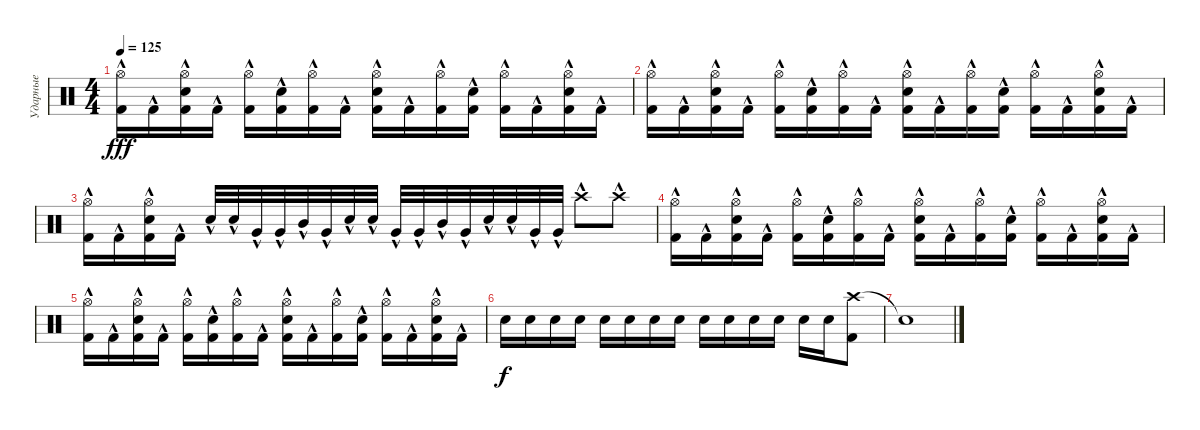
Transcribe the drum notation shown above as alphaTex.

\track ("Ударные" "Ударные") {instrument percussion}
\staff {score}
\articulation defaults
\ts (4 4)
\tempo 125
\clef neutral
\ks c
("Hi-Hat (open)"{hac} "Kick (hit) 2"{hac}).16{dy fff} "Kick (hit) 2"{hac}.16 ("Hi-Hat (open)"{hac} "Electric Snare (hit)"{hac} "Kick (hit) 2"{hac}).16 "Kick (hit) 2"{hac}.16 ("Hi-Hat (open)"{hac} "Kick (hit) 2"{hac}).16 ("Electric Snare (hit)"{hac} "Kick (hit) 2"{hac}).16 ("Hi-Hat (open)"{hac} "Kick (hit) 2"{hac}).16 "Kick (hit) 2"{hac}.16 ("Hi-Hat (open)"{hac} "Electric Snare (hit)"{hac} "Kick (hit) 2"{hac}).16 "Kick (hit) 2"{hac}.16 ("Hi-Hat (open)"{hac} "Kick (hit) 2"{hac}).16 ("Electric Snare (hit)"{hac} "Kick (hit) 2"{hac}).16 ("Hi-Hat (open)"{hac} "Kick (hit) 2"{hac}).16 "Kick (hit) 2"{hac}.16 ("Hi-Hat (open)"{hac} "Electric Snare (hit)"{hac} "Kick (hit) 2"{hac}).16 "Kick (hit) 2"{hac}.16 |
("Hi-Hat (open)"{hac} "Kick (hit) 2"{hac}).16 "Kick (hit) 2"{hac}.16 ("Hi-Hat (open)"{hac} "Electric Snare (hit)"{hac} "Kick (hit) 2"{hac}).16 "Kick (hit) 2"{hac}.16 ("Hi-Hat (open)"{hac} "Kick (hit) 2"{hac}).16 ("Electric Snare (hit)"{hac} "Kick (hit) 2"{hac}).16 ("Hi-Hat (open)"{hac} "Kick (hit) 2"{hac}).16 "Kick (hit) 2"{hac}.16 ("Hi-Hat (open)"{hac} "Electric Snare (hit)"{hac} "Kick (hit) 2"{hac}).16 "Kick (hit) 2"{hac}.16 ("Hi-Hat (open)"{hac} "Kick (hit) 2"{hac}).16 ("Electric Snare (hit)"{hac} "Kick (hit) 2"{hac}).16 ("Hi-Hat (open)"{hac} "Kick (hit) 2"{hac}).16 "Kick (hit) 2"{hac}.16 ("Hi-Hat (open)"{hac} "Electric Snare (hit)"{hac} "Kick (hit) 2"{hac}).16 "Kick (hit) 2"{hac}.16 |
("Hi-Hat (open)"{hac} "Kick (hit) 2"{hac}).16 "Kick (hit) 2"{hac}.16 ("Hi-Hat (open)"{hac} "Electric Snare (hit)"{hac} "Kick (hit) 2"{hac}).16 "Kick (hit) 2"{hac}.16 "Electric Snare (hit)"{hac}.32 "Electric Snare (hit)"{hac}.32 "Very Low Tom (hit)"{hac}.32 "Very Low Tom (hit)"{hac}.32 "Mid Tom (hit)"{hac}.32 "Very Low Tom (hit)"{hac}.32 "Electric Snare (hit)"{hac}.32 "Electric Snare (hit)"{hac}.32 "Very Low Tom (hit)"{hac}.32 "Very Low Tom (hit)"{hac}.32 "Mid Tom (hit)"{hac}.32 "Very Low Tom (hit)"{hac}.32 "Electric Snare (hit)"{hac}.32 "Electric Snare (hit)"{hac}.32 "Very Low Tom (hit)"{hac}.32 "Very Low Tom (hit)"{hac}.32 "Crash high (hit)"{hac}.8 "Crash high (hit)"{hac}.8 |
("Hi-Hat (open)"{hac} "Kick (hit) 2"{hac}).16 "Kick (hit) 2"{hac}.16 ("Hi-Hat (open)"{hac} "Electric Snare (hit)"{hac} "Kick (hit) 2"{hac}).16 "Kick (hit) 2"{hac}.16 ("Hi-Hat (open)"{hac} "Kick (hit) 2"{hac}).16 ("Electric Snare (hit)"{hac} "Kick (hit) 2"{hac}).16 ("Hi-Hat (open)"{hac} "Kick (hit) 2"{hac}).16 "Kick (hit) 2"{hac}.16 ("Hi-Hat (open)"{hac} "Electric Snare (hit)"{hac} "Kick (hit) 2"{hac}).16 "Kick (hit) 2"{hac}.16 ("Hi-Hat (open)"{hac} "Kick (hit) 2"{hac}).16 ("Electric Snare (hit)"{hac} "Kick (hit) 2"{hac}).16 ("Hi-Hat (open)"{hac} "Kick (hit) 2"{hac}).16 "Kick (hit) 2"{hac}.16 ("Hi-Hat (open)"{hac} "Electric Snare (hit)"{hac} "Kick (hit) 2"{hac}).16 "Kick (hit) 2"{hac}.16 |
("Hi-Hat (open)"{hac} "Kick (hit) 2"{hac}).16 "Kick (hit) 2"{hac}.16 ("Hi-Hat (open)"{hac} "Electric Snare (hit)"{hac} "Kick (hit) 2"{hac}).16 "Kick (hit) 2"{hac}.16 ("Hi-Hat (open)"{hac} "Kick (hit) 2"{hac}).16 ("Electric Snare (hit)"{hac} "Kick (hit) 2"{hac}).16 ("Hi-Hat (open)"{hac} "Kick (hit) 2"{hac}).16 "Kick (hit) 2"{hac}.16 ("Hi-Hat (open)"{hac} "Electric Snare (hit)"{hac} "Kick (hit) 2"{hac}).16 "Kick (hit) 2"{hac}.16 ("Hi-Hat (open)"{hac} "Kick (hit) 2"{hac}).16 ("Electric Snare (hit)"{hac} "Kick (hit) 2"{hac}).16 ("Hi-Hat (open)"{hac} "Kick (hit) 2"{hac}).16 "Kick (hit) 2"{hac}.16 ("Hi-Hat (open)"{hac} "Electric Snare (hit)"{hac} "Kick (hit) 2"{hac}).16 "Kick (hit) 2"{hac}.16 |
"Electric Snare (hit)".16{dy f} "Electric Snare (hit)".16 "Electric Snare (hit)".16 "Electric Snare (hit)".16 "Electric Snare (hit)".16 "Electric Snare (hit)".16 "Electric Snare (hit)".16 "Electric Snare (hit)".16 "Electric Snare (hit)".16 "Electric Snare (hit)".16 "Electric Snare (hit)".16 "Electric Snare (hit)".16 "Electric Snare (hit)".16 "Electric Snare (hit)".16 ("Crash high (hit)" "Kick (hit) 2").8 |
"Snare (hit)"{t}.1
